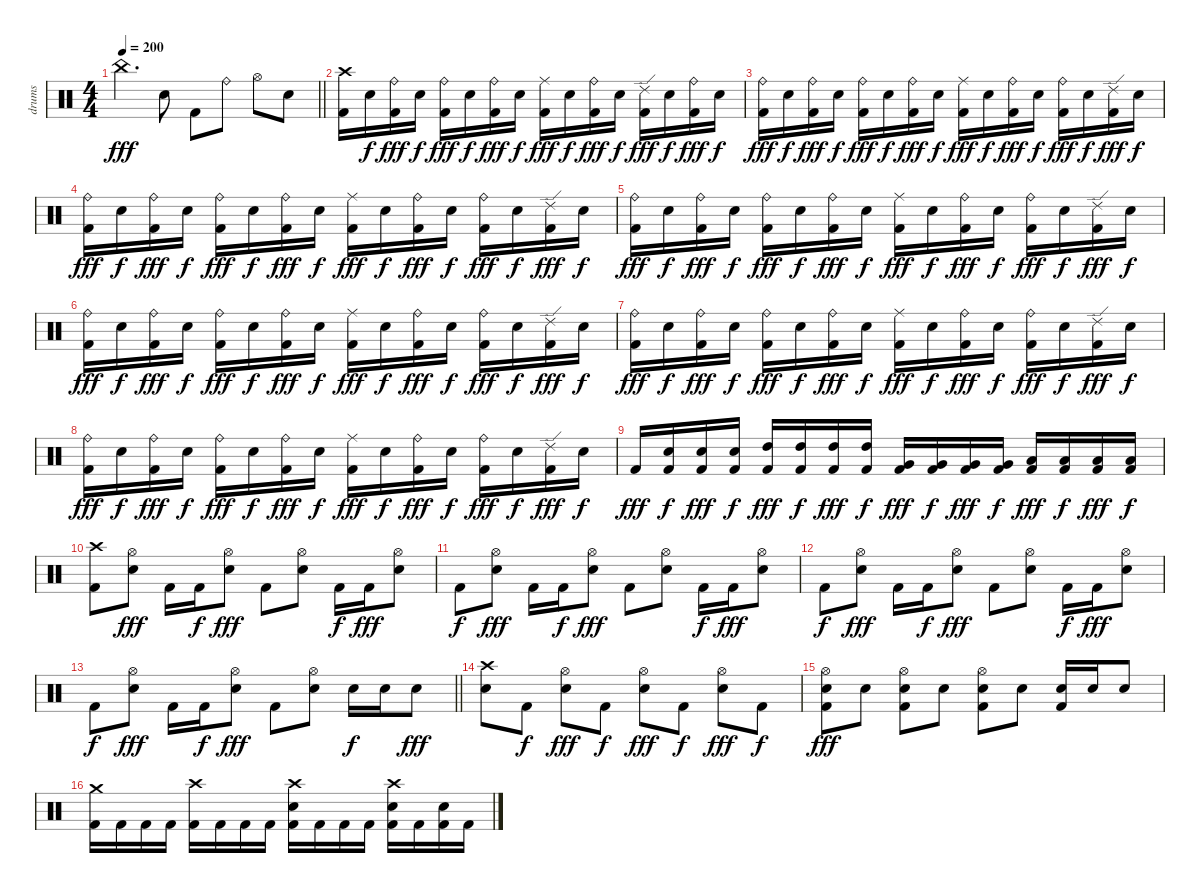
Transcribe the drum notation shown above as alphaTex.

\track ("drums" "drums") {instrument percussion}
\staff {score}
\articulation defaults
\ts (4 4)
\tempo 200
\clef neutral
\barLineRight lightlight
\ks c "China (hit)".4{d dy fff} "Electric Snare (hit)".8 "Kick (hit) 2".8 "Ride (bell)".8 "Hi-Hat (open)".8 "Electric Snare (hit)".8
|
("Crash high (hit)" "Kick (hit) 2").16 "Electric Snare (hit)".16{dy f} ("Ride (bell)" "Kick (hit) 2").16{dy fff} "Electric Snare (hit)".16{dy f} ("Ride (bell)" "Kick (hit) 2").16{dy fff} "Electric Snare (hit)".16{dy f} ("Ride (bell)" "Kick (hit) 2").16{dy fff} "Electric Snare (hit)".16{dy f} ("Ride (middle)" "Kick (hit) 2").16{dy fff} "Electric Snare (hit)".16{dy f} ("Ride (bell)" "Kick (hit) 2").16{dy fff} "Electric Snare (hit)".16{dy f} ("Ride (edge) 2" "Kick (hit) 2").16{dy fff} "Electric Snare (hit)".16{dy f} ("Ride (bell)" "Kick (hit) 2").16{dy fff} "Electric Snare (hit)".16{dy f} |
("Ride (bell)" "Kick (hit) 2").16{dy fff} "Electric Snare (hit)".16{dy f} ("Ride (bell)" "Kick (hit) 2").16{dy fff} "Electric Snare (hit)".16{dy f} ("Ride (bell)" "Kick (hit) 2").16{dy fff} "Electric Snare (hit)".16{dy f} ("Ride (bell)" "Kick (hit) 2").16{dy fff} "Electric Snare (hit)".16{dy f} ("Ride (middle)" "Kick (hit) 2").16{dy fff} "Electric Snare (hit)".16{dy f} ("Ride (bell)" "Kick (hit) 2").16{dy fff} "Electric Snare (hit)".16{dy f} ("Ride (bell)" "Kick (hit) 2").16{dy fff} "Electric Snare (hit)".16{dy f} ("Ride (edge) 2" "Kick (hit) 2").16{dy fff} "Electric Snare (hit)".16{dy f} |
("Ride (bell)" "Kick (hit) 2").16{dy fff} "Electric Snare (hit)".16{dy f} ("Ride (bell)" "Kick (hit) 2").16{dy fff} "Electric Snare (hit)".16{dy f} ("Ride (bell)" "Kick (hit) 2").16{dy fff} "Electric Snare (hit)".16{dy f} ("Ride (bell)" "Kick (hit) 2").16{dy fff} "Electric Snare (hit)".16{dy f} ("Ride (middle)" "Kick (hit) 2").16{dy fff} "Electric Snare (hit)".16{dy f} ("Ride (bell)" "Kick (hit) 2").16{dy fff} "Electric Snare (hit)".16{dy f} ("Ride (bell)" "Kick (hit) 2").16{dy fff} "Electric Snare (hit)".16{dy f} ("Ride (edge) 2" "Kick (hit) 2").16{dy fff} "Electric Snare (hit)".16{dy f} |
("Ride (bell)" "Kick (hit) 2").16{dy fff} "Electric Snare (hit)".16{dy f} ("Ride (bell)" "Kick (hit) 2").16{dy fff} "Electric Snare (hit)".16{dy f} ("Ride (bell)" "Kick (hit) 2").16{dy fff} "Electric Snare (hit)".16{dy f} ("Ride (bell)" "Kick (hit) 2").16{dy fff} "Electric Snare (hit)".16{dy f} ("Ride (middle)" "Kick (hit) 2").16{dy fff} "Electric Snare (hit)".16{dy f} ("Ride (bell)" "Kick (hit) 2").16{dy fff} "Electric Snare (hit)".16{dy f} ("Ride (bell)" "Kick (hit) 2").16{dy fff} "Electric Snare (hit)".16{dy f} ("Ride (edge) 2" "Kick (hit) 2").16{dy fff} "Electric Snare (hit)".16{dy f} |
("Ride (bell)" "Kick (hit) 2").16{dy fff} "Electric Snare (hit)".16{dy f} ("Ride (bell)" "Kick (hit) 2").16{dy fff} "Electric Snare (hit)".16{dy f} ("Ride (bell)" "Kick (hit) 2").16{dy fff} "Electric Snare (hit)".16{dy f} ("Ride (bell)" "Kick (hit) 2").16{dy fff} "Electric Snare (hit)".16{dy f} ("Ride (middle)" "Kick (hit) 2").16{dy fff} "Electric Snare (hit)".16{dy f} ("Ride (bell)" "Kick (hit) 2").16{dy fff} "Electric Snare (hit)".16{dy f} ("Ride (bell)" "Kick (hit) 2").16{dy fff} "Electric Snare (hit)".16{dy f} ("Ride (edge) 2" "Kick (hit) 2").16{dy fff} "Electric Snare (hit)".16{dy f} |
("Ride (bell)" "Kick (hit) 2").16{dy fff} "Electric Snare (hit)".16{dy f} ("Ride (bell)" "Kick (hit) 2").16{dy fff} "Electric Snare (hit)".16{dy f} ("Ride (bell)" "Kick (hit) 2").16{dy fff} "Electric Snare (hit)".16{dy f} ("Ride (bell)" "Kick (hit) 2").16{dy fff} "Electric Snare (hit)".16{dy f} ("Ride (middle)" "Kick (hit) 2").16{dy fff} "Electric Snare (hit)".16{dy f} ("Ride (bell)" "Kick (hit) 2").16{dy fff} "Electric Snare (hit)".16{dy f} ("Ride (bell)" "Kick (hit) 2").16{dy fff} "Electric Snare (hit)".16{dy f} ("Ride (edge) 2" "Kick (hit) 2").16{dy fff} "Electric Snare (hit)".16{dy f} |
("Ride (bell)" "Kick (hit) 2").16{dy fff} "Electric Snare (hit)".16{dy f} ("Ride (bell)" "Kick (hit) 2").16{dy fff} "Electric Snare (hit)".16{dy f} ("Ride (bell)" "Kick (hit) 2").16{dy fff} "Electric Snare (hit)".16{dy f} ("Ride (bell)" "Kick (hit) 2").16{dy fff} "Electric Snare (hit)".16{dy f} ("Ride (middle)" "Kick (hit) 2").16{dy fff} "Electric Snare (hit)".16{dy f} ("Ride (bell)" "Kick (hit) 2").16{dy fff} "Electric Snare (hit)".16{dy f} ("Ride (bell)" "Kick (hit) 2").16{dy fff} "Electric Snare (hit)".16{dy f} ("Ride (edge) 2" "Kick (hit) 2").16{dy fff} "Electric Snare (hit)".16{dy f} |
"Kick (hit) 2".16{dy fff} ("Electric Snare (hit)" "Kick (hit) 2").16{dy f} ("Electric Snare (hit)" "Kick (hit) 2").16{dy fff} ("Electric Snare (hit)" "Kick (hit) 2").16{dy f} ("High Tom (hit)" "Kick (hit) 2").16{dy fff} ("High Tom (hit)" "Kick (hit) 2").16{dy f} ("High Tom (hit)" "Kick (hit) 2").16{dy fff} ("High Tom (hit)" "Kick (hit) 2").16{dy f} ("Very Low Tom (hit)" "Kick (hit) 2").16{dy fff} ("Very Low Tom (hit)" "Kick (hit) 2").16{dy f} ("Very Low Tom (hit)" "Kick (hit) 2").16{dy fff} ("Very Low Tom (hit)" "Kick (hit) 2").16{dy f} ("Low Floor Tom (hit)" "Kick (hit) 2").16{dy fff} ("Low Floor Tom (hit)" "Kick (hit) 2").16{dy f} ("Low Floor Tom (hit)" "Kick (hit) 2").16{dy fff} ("Low Floor Tom (hit)" "Kick (hit) 2").16{dy f} |
("Crash high (hit)" "Kick (hit) 2").8 ("Hi-Hat (open)" "Electric Snare (hit)").8{dy fff} "Kick (hit) 2".16 "Kick (hit) 2".16{dy f} ("Hi-Hat (open)" "Electric Snare (hit)").8{dy fff} "Kick (hit) 2".8 ("Hi-Hat (open)" "Electric Snare (hit)").8 "Kick (hit) 2".16{dy f} "Kick (hit) 2".16{dy fff} ("Hi-Hat (open)" "Electric Snare (hit)").8 |
"Kick (hit) 2".8{dy f} ("Hi-Hat (open)" "Electric Snare (hit)").8{dy fff} "Kick (hit) 2".16 "Kick (hit) 2".16{dy f} ("Hi-Hat (open)" "Electric Snare (hit)").8{dy fff} "Kick (hit) 2".8 ("Hi-Hat (open)" "Electric Snare (hit)").8 "Kick (hit) 2".16{dy f} "Kick (hit) 2".16{dy fff} ("Hi-Hat (open)" "Electric Snare (hit)").8 |
"Kick (hit) 2".8{dy f} ("Hi-Hat (open)" "Electric Snare (hit)").8{dy fff} "Kick (hit) 2".16 "Kick (hit) 2".16{dy f} ("Hi-Hat (open)" "Electric Snare (hit)").8{dy fff} "Kick (hit) 2".8 ("Hi-Hat (open)" "Electric Snare (hit)").8 "Kick (hit) 2".16{dy f} "Kick (hit) 2".16{dy fff} ("Hi-Hat (open)" "Electric Snare (hit)").8 |
\barLineRight lightlight "Kick (hit) 2".8{dy f}
("Hi-Hat (open)" "Electric Snare (hit)").8{dy fff} "Kick (hit) 2".16 "Kick (hit) 2".16{dy f} ("Hi-Hat (open)" "Electric Snare (hit)").8{dy fff} "Kick (hit) 2".8 ("Hi-Hat (open)" "Electric Snare (hit)").8 "Electric Snare (hit)".16{dy f} "Electric Snare (hit)".16 "Electric Snare (hit)".8{dy fff} |
("Crash high (hit)" "Electric Snare (hit)").8 "Kick (hit) 2".8{dy f} ("Hi-Hat (open)" "Electric Snare (hit)").8{dy fff} "Kick (hit) 2".8{dy f} ("Hi-Hat (open)" "Electric Snare (hit)").8{dy fff} "Kick (hit) 2".8{dy f} ("Hi-Hat (open)" "Electric Snare (hit)").8{dy fff} "Kick (hit) 2".8{dy f} |
("Hi-Hat (open)" "Electric Snare (hit)" "Kick (hit) 2").8{dy fff} "Electric Snare (hit)".8 ("Hi-Hat (open)" "Electric Snare (hit)" "Kick (hit) 2").8 "Electric Snare (hit)".8 ("Hi-Hat (open)" "Electric Snare (hit)" "Kick (hit) 2").8 "Electric Snare (hit)".8 ("Electric Snare (hit)" "Kick (hit) 2").16 "Electric Snare (hit)".16 "Electric Snare (hit)".8 |
("Crash medium (hit)" "Kick (hit) 2").16 "Kick (hit) 2".16 "Kick (hit) 2".16 "Kick (hit) 2".16 ("Crash high (hit)" "Kick (hit) 2").16 "Kick (hit) 2".16 "Kick (hit) 2".16 "Kick (hit) 2".16 ("Crash high (hit)" "Electric Snare (hit)" "Kick (hit) 2").16 "Kick (hit) 2".16 "Kick (hit) 2".16 "Kick (hit) 2".16 ("Crash high (hit)" "Electric Snare (hit)" "Kick (hit) 2").16 "Kick (hit) 2".16 ("Electric Snare (hit)" "Kick (hit) 2").16 "Kick (hit) 2".16
